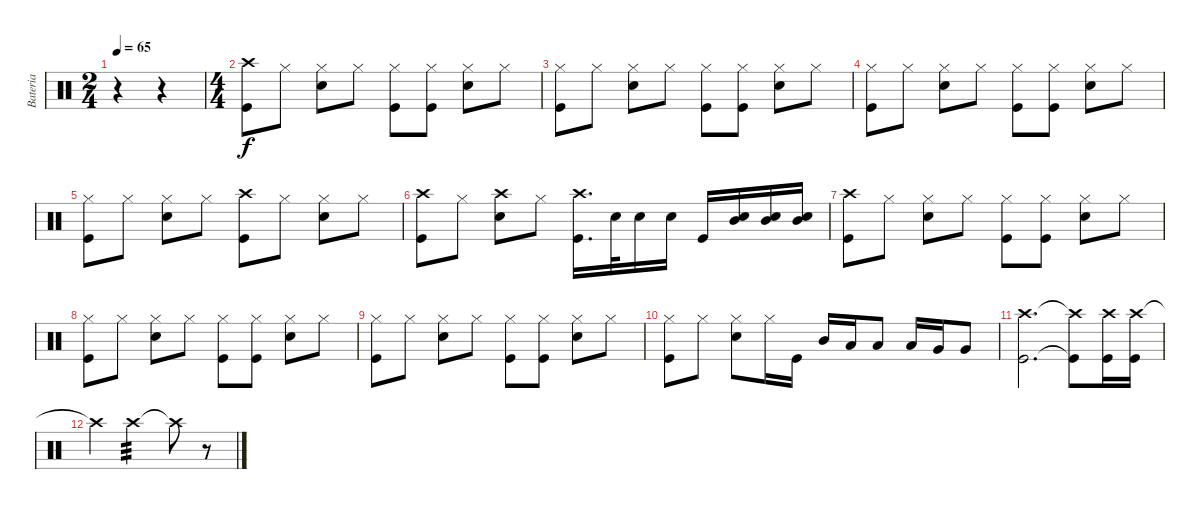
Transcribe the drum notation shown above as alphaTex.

\track ("Bateria" "Bateria") {instrument percussion}
\staff {score}
\articulation defaults
\ts (2 4)
\tempo 65
\clef neutral
\ks c
r.4{dy f} r.4 |
\ts (4 4)
("Crash high (hit)" "Kick (hit)").8 "Hi-Hat (closed)".8 ("Hi-Hat (closed)" "Snare (hit) 2").8 "Hi-Hat (closed)".8 ("Hi-Hat (closed)" "Kick (hit)").8 ("Hi-Hat (closed)" "Kick (hit)").8 ("Hi-Hat (closed)" "Snare (hit) 2").8 "Hi-Hat (closed)".8 |
("Hi-Hat (closed)" "Kick (hit)").8 "Hi-Hat (closed)".8 ("Hi-Hat (closed)" "Snare (hit) 2").8 "Hi-Hat (closed)".8 ("Hi-Hat (closed)" "Kick (hit)").8 ("Hi-Hat (closed)" "Kick (hit)").8 ("Hi-Hat (closed)" "Snare (hit) 2").8 "Hi-Hat (closed)".8 |
("Hi-Hat (closed)" "Kick (hit)").8 "Hi-Hat (closed)".8 ("Hi-Hat (closed)" "Snare (hit) 2").8 "Hi-Hat (closed)".8 ("Hi-Hat (closed)" "Kick (hit)").8 ("Hi-Hat (closed)" "Kick (hit)").8 ("Hi-Hat (closed)" "Snare (hit) 2").8 "Hi-Hat (closed)".8 |
("Hi-Hat (closed)" "Kick (hit)").8 "Hi-Hat (closed)".8 ("Hi-Hat (closed)" "Snare (hit) 2").8 "Hi-Hat (closed)".8 ("Crash high (hit)" "Kick (hit)").8 "Hi-Hat (closed)".8 ("Hi-Hat (closed)" "Snare (hit) 2").8 "Hi-Hat (closed)".8 |
("Crash high (hit)" "Kick (hit)").8 "Hi-Hat (closed)".8 ("Crash high (hit)" "Snare (hit) 2").8 "Hi-Hat (closed)".8 ("Crash high (hit)" "Kick (hit)").16{d} "Snare (hit) 2".32 "Snare (hit) 2".16 "Snare (hit) 2".16 "Kick (hit)".16 ("Snare (hit) 2" "Mid Tom (hit)").16 ("Snare (hit) 2" "Mid Tom (hit)").16 ("Snare (hit) 2" "Mid Tom (hit)").16 |
("Crash high (hit)" "Kick (hit)").8 "Hi-Hat (closed)".8 ("Hi-Hat (closed)" "Snare (hit) 2").8 "Hi-Hat (closed)".8 ("Hi-Hat (closed)" "Kick (hit)").8 ("Hi-Hat (closed)" "Kick (hit)").8 ("Hi-Hat (closed)" "Snare (hit) 2").8 "Hi-Hat (closed)".8 |
("Hi-Hat (closed)" "Kick (hit)").8 "Hi-Hat (closed)".8 ("Hi-Hat (closed)" "Snare (hit) 2").8 "Hi-Hat (closed)".8 ("Hi-Hat (closed)" "Kick (hit)").8 ("Hi-Hat (closed)" "Kick (hit)").8 ("Hi-Hat (closed)" "Snare (hit) 2").8 "Hi-Hat (closed)".8 |
("Hi-Hat (closed)" "Kick (hit)").8 "Hi-Hat (closed)".8 ("Hi-Hat (closed)" "Snare (hit) 2").8 "Hi-Hat (closed)".8 ("Hi-Hat (closed)" "Kick (hit)").8 ("Hi-Hat (closed)" "Kick (hit)").8 ("Hi-Hat (closed)" "Snare (hit) 2").8 "Hi-Hat (closed)".8 |
("Hi-Hat (closed)" "Kick (hit)").8 "Hi-Hat (closed)".8 ("Hi-Hat (closed)" "Snare (hit) 2").8 "Hi-Hat (closed)".16 "Kick (hit)".16 "Mid Tom (hit)".16 "Low Tom (hit)".16 "Low Tom (hit)".8 "Low Tom (hit)".16 "Very Low Tom (hit)".16 "Very Low Tom (hit)".8 |
("Kick (hit)" "Crash high (hit)").2{d} ("Kick (hit)"{t} "Crash high (hit)"{t}).8 ("Crash high (hit)" "Kick (hit)").16 ("Crash high (hit)" "Kick (hit)").16 |
"Crash high (hit)"{t}.4 "Crash high (hit)".2{tp 3} "Crash high (hit)"{t}.8 r.8
